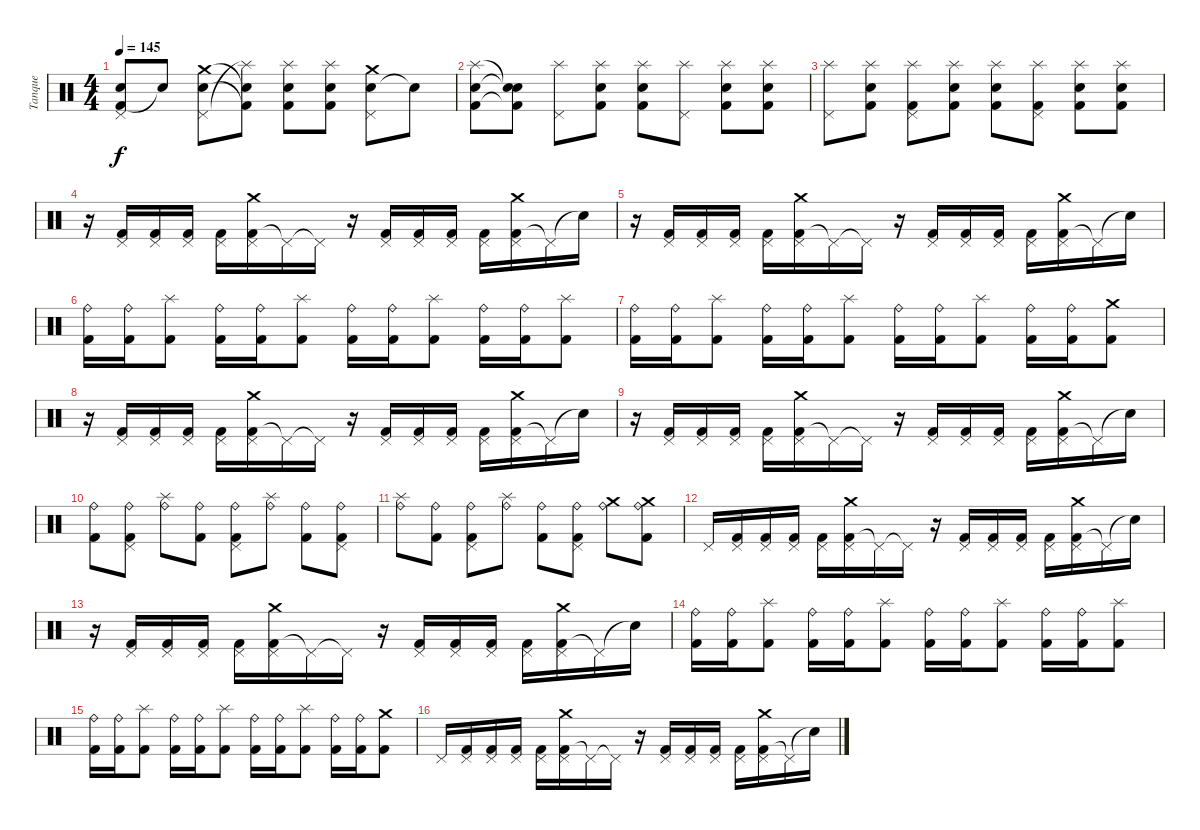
\track ("Tanque" "Tanque") {instrument percussion}
\staff {score}
\articulation defaults
\ts (4 4)
\tempo 145
\clef neutral
\ks c
("Kick (hit) 2" "Electric Snare (hit)" "Pedal Hi-Hat (hit)").8{dy f} "Snare (hit)"{t}.8 ("Snare (hit) 2" "Crash medium (hit)" "Pedal Hi-Hat (hit)").8 ("Kick (hit) 2"{t} "Electric Snare (hit)"{t} "Splash (hit)"{t}).8 ("Kick (hit) 2" "Electric Snare (hit)" "Splash (hit)").8 ("Kick (hit) 2" "Electric Snare (hit)" "Splash (hit)").8 ("Snare (hit) 2" "Crash medium (hit)" "Pedal Hi-Hat (hit)").8 "Snare (hit)"{t}.8 |
("Kick (hit) 2" "Snare (hit) 2" "Splash (hit)").8 ("Kick (hit) 2"{t} "Snare (hit)"{t} "Snare (hit)"{t}).8 ("Pedal Hi-Hat (hit)" "Splash (hit)").8 ("Kick (hit) 2" "Snare (hit) 2" "Splash (hit)").8 ("Kick (hit) 2" "Snare (hit) 2" "Splash (hit)").8 ("Pedal Hi-Hat (hit)" "Splash (hit)").8 ("Kick (hit) 2" "Snare (hit) 2" "Splash (hit)").8 ("Kick (hit) 2" "Snare (hit) 2" "Splash (hit)").8 |
("Pedal Hi-Hat (hit)" "Splash (hit)").8 ("Kick (hit) 2" "Snare (hit) 2" "Splash (hit)").8 ("Kick (hit) 2" "Pedal Hi-Hat (hit)" "Splash (hit)").8 ("Kick (hit) 2" "Snare (hit) 2" "Splash (hit)").8 ("Kick (hit) 2" "Snare (hit) 2" "Splash (hit)").8 ("Kick (hit) 2" "Pedal Hi-Hat (hit)" "Splash (hit)").8 ("Kick (hit) 2" "Snare (hit) 2" "Splash (hit)").8 ("Kick (hit) 2" "Snare (hit) 2" "Splash (hit)").8 |
r.16 ("Kick (hit) 2" "Pedal Hi-Hat (hit)").16 ("Kick (hit) 2" "Pedal Hi-Hat (hit)").16 ("Kick (hit) 2" "Pedal Hi-Hat (hit)").16 ("Kick (hit) 2" "Pedal Hi-Hat (hit)").16 ("Kick (hit) 2" "Pedal Hi-Hat (hit)" "Crash medium (hit)").16 "Pedal Hi-Hat (hit)"{t}.16 "Pedal Hi-Hat (hit)"{t}.16 r.16 ("Kick (hit) 2" "Pedal Hi-Hat (hit)").16 ("Kick (hit) 2" "Pedal Hi-Hat (hit)").16 ("Kick (hit) 2" "Pedal Hi-Hat (hit)").16 ("Kick (hit) 2" "Pedal Hi-Hat (hit)").16 ("Kick (hit) 2" "Pedal Hi-Hat (hit)" "Crash medium (hit)").16 "Pedal Hi-Hat (hit)"{t}.16 "Snare (hit)"{t}.16 |
r.16 ("Kick (hit) 2" "Pedal Hi-Hat (hit)").16 ("Kick (hit) 2" "Pedal Hi-Hat (hit)").16 ("Kick (hit) 2" "Pedal Hi-Hat (hit)").16 ("Kick (hit) 2" "Pedal Hi-Hat (hit)").16 ("Kick (hit) 2" "Pedal Hi-Hat (hit)" "Crash medium (hit)").16 "Pedal Hi-Hat (hit)"{t}.16 "Pedal Hi-Hat (hit)"{t}.16 r.16 ("Kick (hit) 2" "Pedal Hi-Hat (hit)").16 ("Kick (hit) 2" "Pedal Hi-Hat (hit)").16 ("Kick (hit) 2" "Pedal Hi-Hat (hit)").16 ("Kick (hit) 2" "Pedal Hi-Hat (hit)").16 ("Kick (hit) 2" "Pedal Hi-Hat (hit)" "Crash medium (hit)").16 "Pedal Hi-Hat (hit)"{t}.16 "Snare (hit)"{t}.16 |
("Kick (hit) 2" "Ride (bell)").16 ("Kick (hit) 2" "Ride (bell)").16 ("Kick (hit) 2" "Splash (hit)").8 ("Kick (hit) 2" "Ride (bell)").16 ("Kick (hit) 2" "Ride (bell)").16 ("Kick (hit) 2" "Splash (hit)").8 ("Kick (hit) 2" "Ride (bell)").16 ("Kick (hit) 2" "Ride (bell)").16 ("Kick (hit) 2" "Splash (hit)").8 ("Kick (hit) 2" "Ride (bell)").16 ("Kick (hit) 2" "Ride (bell)").16 ("Kick (hit) 2" "Splash (hit)").8 |
("Kick (hit) 2" "Ride (bell)").16 ("Kick (hit) 2" "Ride (bell)").16 ("Kick (hit) 2" "Splash (hit)").8 ("Kick (hit) 2" "Ride (bell)").16 ("Kick (hit) 2" "Ride (bell)").16 ("Kick (hit) 2" "Splash (hit)").8 ("Kick (hit) 2" "Ride (bell)").16 ("Kick (hit) 2" "Ride (bell)").16 ("Kick (hit) 2" "Splash (hit)").8 ("Kick (hit) 2" "Ride (bell)").16 ("Kick (hit) 2" "Ride (bell)").16 ("Kick (hit) 2" "Crash medium (hit)").8 |
r.16 ("Kick (hit) 2" "Pedal Hi-Hat (hit)").16 ("Kick (hit) 2" "Pedal Hi-Hat (hit)").16 ("Kick (hit) 2" "Pedal Hi-Hat (hit)").16 ("Kick (hit) 2" "Pedal Hi-Hat (hit)").16 ("Kick (hit) 2" "Pedal Hi-Hat (hit)" "Crash medium (hit)").16 "Pedal Hi-Hat (hit)"{t}.16 "Pedal Hi-Hat (hit)"{t}.16 r.16 ("Kick (hit) 2" "Pedal Hi-Hat (hit)").16 ("Kick (hit) 2" "Pedal Hi-Hat (hit)").16 ("Kick (hit) 2" "Pedal Hi-Hat (hit)").16 ("Kick (hit) 2" "Pedal Hi-Hat (hit)").16 ("Kick (hit) 2" "Pedal Hi-Hat (hit)" "Crash medium (hit)").16 "Pedal Hi-Hat (hit)"{t}.16 "Snare (hit)"{t}.16 |
r.16 ("Kick (hit) 2" "Pedal Hi-Hat (hit)").16 ("Kick (hit) 2" "Pedal Hi-Hat (hit)").16 ("Kick (hit) 2" "Pedal Hi-Hat (hit)").16 ("Kick (hit) 2" "Pedal Hi-Hat (hit)").16 ("Kick (hit) 2" "Pedal Hi-Hat (hit)" "Crash medium (hit)").16 "Pedal Hi-Hat (hit)"{t}.16 "Pedal Hi-Hat (hit)"{t}.16 r.16 ("Kick (hit) 2" "Pedal Hi-Hat (hit)").16 ("Kick (hit) 2" "Pedal Hi-Hat (hit)").16 ("Kick (hit) 2" "Pedal Hi-Hat (hit)").16 ("Kick (hit) 2" "Pedal Hi-Hat (hit)").16 ("Kick (hit) 2" "Pedal Hi-Hat (hit)" "Crash medium (hit)").16 "Pedal Hi-Hat (hit)"{t}.16 "Snare (hit)"{t}.16 |
("Kick (hit) 2" "Ride (bell)").8 ("Kick (hit) 2" "Ride (bell)" "Pedal Hi-Hat (hit)").8 ("Ride (bell)" "Splash (hit)").8 ("Kick (hit) 2" "Ride (bell)").8 ("Kick (hit) 2" "Ride (bell)" "Pedal Hi-Hat (hit)").8 ("Ride (bell)" "Splash (hit)").8 ("Kick (hit) 2" "Ride (bell)").8 ("Kick (hit) 2" "Ride (bell)" "Pedal Hi-Hat (hit)").8 |
("Ride (bell)" "Splash (hit)").8 ("Kick (hit) 2" "Ride (bell)").8 ("Kick (hit) 2" "Ride (bell)" "Pedal Hi-Hat (hit)").8 ("Ride (bell)" "Splash (hit)").8 ("Kick (hit) 2" "Ride (bell)").8 ("Kick (hit) 2" "Ride (bell)" "Pedal Hi-Hat (hit)").8 ("Ride (bell)" "Crash medium (hit)").8 ("Kick (hit) 2" "Ride (bell)" "Crash medium (hit)").8 |
"Pedal Hi-Hat (hit)".16 ("Kick (hit) 2" "Pedal Hi-Hat (hit)").16 ("Kick (hit) 2" "Pedal Hi-Hat (hit)").16 ("Kick (hit) 2" "Pedal Hi-Hat (hit)").16 ("Kick (hit) 2" "Pedal Hi-Hat (hit)").16 ("Kick (hit) 2" "Pedal Hi-Hat (hit)" "Crash medium (hit)").16 "Pedal Hi-Hat (hit)"{t}.16 "Pedal Hi-Hat (hit)"{t}.16 r.16 ("Kick (hit) 2" "Pedal Hi-Hat (hit)").16 ("Kick (hit) 2" "Pedal Hi-Hat (hit)").16 ("Kick (hit) 2" "Pedal Hi-Hat (hit)").16 ("Kick (hit) 2" "Pedal Hi-Hat (hit)").16 ("Kick (hit) 2" "Pedal Hi-Hat (hit)" "Crash medium (hit)").16 "Pedal Hi-Hat (hit)"{t}.16 "Snare (hit)"{t}.16 |
r.16 ("Kick (hit) 2" "Pedal Hi-Hat (hit)").16 ("Kick (hit) 2" "Pedal Hi-Hat (hit)").16 ("Kick (hit) 2" "Pedal Hi-Hat (hit)").16 ("Kick (hit) 2" "Pedal Hi-Hat (hit)").16 ("Kick (hit) 2" "Pedal Hi-Hat (hit)" "Crash medium (hit)").16 "Pedal Hi-Hat (hit)"{t}.16 "Pedal Hi-Hat (hit)"{t}.16 r.16 ("Kick (hit) 2" "Pedal Hi-Hat (hit)").16 ("Kick (hit) 2" "Pedal Hi-Hat (hit)").16 ("Kick (hit) 2" "Pedal Hi-Hat (hit)").16 ("Kick (hit) 2" "Pedal Hi-Hat (hit)").16 ("Kick (hit) 2" "Pedal Hi-Hat (hit)" "Crash medium (hit)").16 "Pedal Hi-Hat (hit)"{t}.16 "Snare (hit)"{t}.16 |
("Kick (hit) 2" "Ride (bell)").16 ("Kick (hit) 2" "Ride (bell)").16 ("Kick (hit) 2" "Splash (hit)").8 ("Kick (hit) 2" "Ride (bell)").16 ("Kick (hit) 2" "Ride (bell)").16 ("Kick (hit) 2" "Splash (hit)").8 ("Kick (hit) 2" "Ride (bell)").16 ("Kick (hit) 2" "Ride (bell)").16 ("Kick (hit) 2" "Splash (hit)").8 ("Kick (hit) 2" "Ride (bell)").16 ("Kick (hit) 2" "Ride (bell)").16 ("Kick (hit) 2" "Splash (hit)").8 |
("Kick (hit) 2" "Ride (bell)").16 ("Kick (hit) 2" "Ride (bell)").16 ("Kick (hit) 2" "Splash (hit)").8 ("Kick (hit) 2" "Ride (bell)").16 ("Kick (hit) 2" "Ride (bell)").16 ("Kick (hit) 2" "Splash (hit)").8 ("Kick (hit) 2" "Ride (bell)").16 ("Kick (hit) 2" "Ride (bell)").16 ("Kick (hit) 2" "Splash (hit)").8 ("Kick (hit) 2" "Ride (bell)").16 ("Kick (hit) 2" "Ride (bell)").16 ("Kick (hit) 2" "Crash medium (hit)").8 |
"Pedal Hi-Hat (hit)".16 ("Kick (hit) 2" "Pedal Hi-Hat (hit)").16 ("Kick (hit) 2" "Pedal Hi-Hat (hit)").16 ("Kick (hit) 2" "Pedal Hi-Hat (hit)").16 ("Kick (hit) 2" "Pedal Hi-Hat (hit)").16 ("Kick (hit) 2" "Pedal Hi-Hat (hit)" "Crash medium (hit)").16 "Pedal Hi-Hat (hit)"{t}.16 "Pedal Hi-Hat (hit)"{t}.16 r.16 ("Kick (hit) 2" "Pedal Hi-Hat (hit)").16 ("Kick (hit) 2" "Pedal Hi-Hat (hit)").16 ("Kick (hit) 2" "Pedal Hi-Hat (hit)").16 ("Kick (hit) 2" "Pedal Hi-Hat (hit)").16 ("Kick (hit) 2" "Pedal Hi-Hat (hit)" "Crash medium (hit)").16 "Pedal Hi-Hat (hit)"{t}.16 "Snare (hit)"{t}.16
